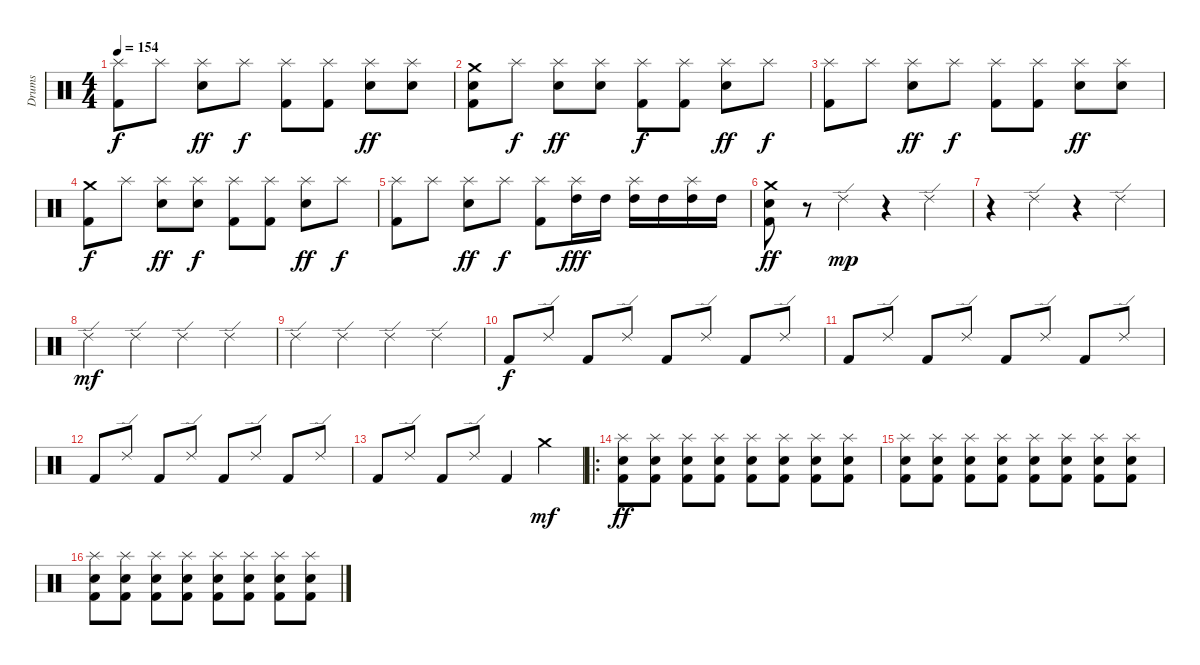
\track ("Drums" "Drums") {instrument percussion}
\staff {score}
\articulation defaults
\ts (4 4)
\tempo 154
\clef neutral
\ks c
("Splash (hit)" "Kick (hit) 2").8{dy f} "Splash (hit)".8 ("Splash (hit)" "Snare (hit) 2").8{dy ff} "Splash (hit)".8{dy f} ("Splash (hit)" "Kick (hit) 2").8 ("Splash (hit)" "Kick (hit) 2").8 ("Splash (hit)" "Snare (hit) 2").8{dy ff} ("Splash (hit)" "Snare (hit) 2").8 |
("Crash medium (hit)" "Snare (hit) 2" "Kick (hit) 2").8 "Splash (hit)".8{dy f} ("Splash (hit)" "Snare (hit) 2").8{dy ff} ("Splash (hit)" "Snare (hit) 2").8 ("Splash (hit)" "Kick (hit) 2").8{dy f} ("Splash (hit)" "Kick (hit) 2").8 ("Splash (hit)" "Snare (hit) 2").8{dy ff} "Splash (hit)".8{dy f} |
("Splash (hit)" "Kick (hit) 2").8 "Splash (hit)".8 ("Splash (hit)" "Snare (hit) 2").8{dy ff} "Splash (hit)".8{dy f} ("Splash (hit)" "Kick (hit) 2").8 ("Splash (hit)" "Kick (hit) 2").8 ("Splash (hit)" "Snare (hit) 2").8{dy ff} ("Splash (hit)" "Snare (hit) 2").8 |
("Crash medium (hit)" "Kick (hit) 2").8{dy f} "Splash (hit)".8 ("Splash (hit)" "Snare (hit) 2").8{dy ff} ("Splash (hit)" "Snare (hit) 2").8{dy f} ("Splash (hit)" "Kick (hit) 2").8 ("Splash (hit)" "Kick (hit) 2").8 ("Splash (hit)" "Snare (hit) 2").8{dy ff} "Splash (hit)".8{dy f} |
("Splash (hit)" "Kick (hit) 2").8 "Splash (hit)".8 ("Splash (hit)" "Snare (hit) 2").8{dy ff} "Splash (hit)".8{dy f} ("Splash (hit)" "Kick (hit) 2").8 ("Splash (hit)" "High Tom (hit)").16{dy fff} "High Tom (hit)".16 ("Splash (hit)" "High Tom (hit)").16 "High Tom (hit)".16 ("Splash (hit)" "High Tom (hit)").16 "High Tom (hit)".16 |
("Crash medium (hit)" "Snare (hit) 2" "Kick (hit) 2").8{dy ff} r.8 "Ride (edge) 2".4{dy mp} r.4 "Ride (edge) 2".4 |
r.4 "Ride (edge) 2".4 r.4 "Ride (edge) 2".4 |
"Ride (edge) 2".4{dy mf} "Ride (edge) 2".4 "Ride (edge) 2".4 "Ride (edge) 2".4 |
"Ride (edge) 2".4 "Ride (edge) 2".4 "Ride (edge) 2".4 "Ride (edge) 2".4 |
"Kick (hit) 2".8{dy f} "Ride (edge) 2".8 "Kick (hit) 2".8 "Ride (edge) 2".8 "Kick (hit) 2".8 "Ride (edge) 2".8 "Kick (hit) 2".8 "Ride (edge) 2".8 |
"Kick (hit) 2".8 "Ride (edge) 2".8 "Kick (hit) 2".8 "Ride (edge) 2".8 "Kick (hit) 2".8 "Ride (edge) 2".8 "Kick (hit) 2".8 "Ride (edge) 2".8 |
"Kick (hit) 2".8 "Ride (edge) 2".8 "Kick (hit) 2".8 "Ride (edge) 2".8 "Kick (hit) 2".8 "Ride (edge) 2".8 "Kick (hit) 2".8 "Ride (edge) 2".8 |
"Kick (hit) 2".8 "Ride (edge) 2".8 "Kick (hit) 2".8 "Ride (edge) 2".8 "Kick (hit) 2".4 "Crash medium (hit)".4{dy mf} |
\ro
("Splash (hit)" "Snare (hit) 2" "Kick (hit) 2").8{dy ff} ("Splash (hit)" "Snare (hit) 2" "Kick (hit) 2").8 ("Splash (hit)" "Snare (hit) 2" "Kick (hit) 2").8 ("Splash (hit)" "Snare (hit) 2" "Kick (hit) 2").8 ("Splash (hit)" "Snare (hit) 2" "Kick (hit) 2").8 ("Splash (hit)" "Snare (hit) 2" "Kick (hit) 2").8 ("Splash (hit)" "Snare (hit) 2" "Kick (hit) 2").8 ("Splash (hit)" "Snare (hit) 2" "Kick (hit) 2").8 |
("Splash (hit)" "Snare (hit) 2" "Kick (hit) 2").8 ("Splash (hit)" "Snare (hit) 2" "Kick (hit) 2").8 ("Splash (hit)" "Snare (hit) 2" "Kick (hit) 2").8 ("Splash (hit)" "Snare (hit) 2" "Kick (hit) 2").8 ("Splash (hit)" "Snare (hit) 2" "Kick (hit) 2").8 ("Splash (hit)" "Snare (hit) 2" "Kick (hit) 2").8 ("Splash (hit)" "Snare (hit) 2" "Kick (hit) 2").8 ("Splash (hit)" "Snare (hit) 2" "Kick (hit) 2").8 |
("Splash (hit)" "Snare (hit) 2" "Kick (hit) 2").8 ("Splash (hit)" "Snare (hit) 2" "Kick (hit) 2").8 ("Splash (hit)" "Snare (hit) 2" "Kick (hit) 2").8 ("Splash (hit)" "Snare (hit) 2" "Kick (hit) 2").8 ("Splash (hit)" "Snare (hit) 2" "Kick (hit) 2").8 ("Splash (hit)" "Snare (hit) 2" "Kick (hit) 2").8 ("Splash (hit)" "Snare (hit) 2" "Kick (hit) 2").8 ("Splash (hit)" "Snare (hit) 2" "Kick (hit) 2").8
